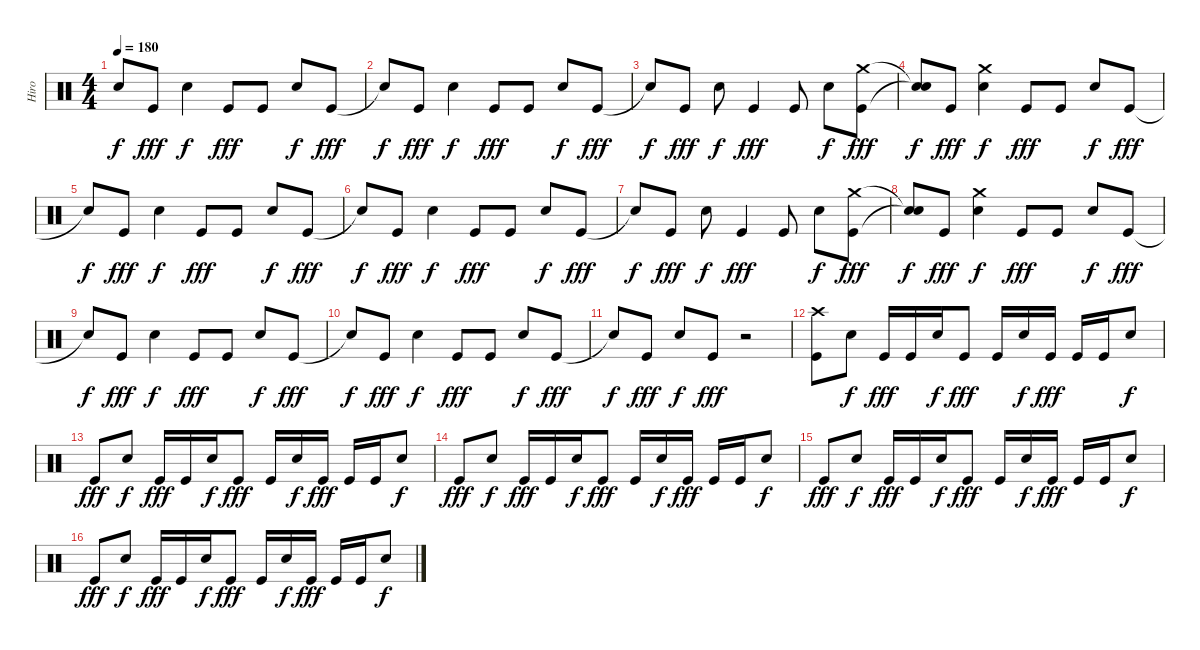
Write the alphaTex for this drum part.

\track ("Hiro" "Hiro") {instrument percussion}
\staff {score}
\articulation defaults
\ts (4 4)
\tempo 180
\clef neutral
\ks c "Snare (hit)"{t}.8{dy f} "Kick (hit)".8{dy fff} "Electric Snare (hit)".4{dy f} "Kick (hit)".8{dy fff} "Kick (hit)".8 "Electric Snare (hit)".8{dy f} "Kick (hit)".8{dy fff}
|
"Snare (hit)"{t}.8{dy f} "Kick (hit)".8{dy fff} "Electric Snare (hit)".4{dy f} "Kick (hit)".8{dy fff} "Kick (hit)".8 "Electric Snare (hit)".8{dy f} "Kick (hit)".8{dy fff} |
"Snare (hit)"{t}.8{dy f} "Kick (hit)".8{dy fff} "Electric Snare (hit)".8{dy f} "Kick (hit)".4{dy fff} "Kick (hit)".8 "Electric Snare (hit)".8{dy f} ("Crash medium (hit)" "Kick (hit)").8{dy fff} |
("Snare (hit)"{t} "Snare (hit)"{t}).8{dy f} "Kick (hit)".8{dy fff} ("Crash medium (hit)" "Electric Snare (hit)").4{dy f} "Kick (hit)".8{dy fff} "Kick (hit)".8 "Electric Snare (hit)".8{dy f} "Kick (hit)".8{dy fff} |
"Snare (hit)"{t}.8{dy f} "Kick (hit)".8{dy fff} "Electric Snare (hit)".4{dy f} "Kick (hit)".8{dy fff} "Kick (hit)".8 "Electric Snare (hit)".8{dy f} "Kick (hit)".8{dy fff} |
"Snare (hit)"{t}.8{dy f} "Kick (hit)".8{dy fff} "Electric Snare (hit)".4{dy f} "Kick (hit)".8{dy fff} "Kick (hit)".8 "Electric Snare (hit)".8{dy f} "Kick (hit)".8{dy fff} |
"Snare (hit)"{t}.8{dy f} "Kick (hit)".8{dy fff} "Electric Snare (hit)".8{dy f} "Kick (hit)".4{dy fff} "Kick (hit)".8 "Electric Snare (hit)".8{dy f} ("Crash medium (hit)" "Kick (hit)").8{dy fff} |
("Snare (hit)"{t} "Snare (hit)"{t}).8{dy f} "Kick (hit)".8{dy fff} ("Crash medium (hit)" "Electric Snare (hit)").4{dy f} "Kick (hit)".8{dy fff} "Kick (hit)".8 "Electric Snare (hit)".8{dy f} "Kick (hit)".8{dy fff} |
"Snare (hit)"{t}.8{dy f} "Kick (hit)".8{dy fff} "Electric Snare (hit)".4{dy f} "Kick (hit)".8{dy fff} "Kick (hit)".8 "Electric Snare (hit)".8{dy f} "Kick (hit)".8{dy fff} |
"Snare (hit)"{t}.8{dy f} "Kick (hit)".8{dy fff} "Electric Snare (hit)".4{dy f} "Kick (hit)".8{dy fff} "Kick (hit)".8 "Electric Snare (hit)".8{dy f} "Kick (hit)".8{dy fff} |
"Snare (hit)"{t}.8{dy f} "Kick (hit)".8{dy fff} "Electric Snare (hit)".8{dy f} "Kick (hit)".8{dy fff} r.2 |
("Crash high (hit)" "Kick (hit)").8 "Electric Snare (hit)".8{dy f} "Kick (hit)".16{dy fff} "Kick (hit)".16 "Electric Snare (hit)".16{dy f} "Kick (hit)".8{dy fff} "Kick (hit)".16 "Electric Snare (hit)".16{dy f} "Kick (hit)".16{dy fff} "Kick (hit)".16 "Kick (hit)".16 "Electric Snare (hit)".8{dy f} |
"Kick (hit)".8{dy fff} "Electric Snare (hit)".8{dy f} "Kick (hit)".16{dy fff} "Kick (hit)".16 "Electric Snare (hit)".16{dy f} "Kick (hit)".8{dy fff} "Kick (hit)".16 "Electric Snare (hit)".16{dy f} "Kick (hit)".16{dy fff} "Kick (hit)".16 "Kick (hit)".16 "Electric Snare (hit)".8{dy f} |
"Kick (hit)".8{dy fff} "Electric Snare (hit)".8{dy f} "Kick (hit)".16{dy fff} "Kick (hit)".16 "Electric Snare (hit)".16{dy f} "Kick (hit)".8{dy fff} "Kick (hit)".16 "Electric Snare (hit)".16{dy f} "Kick (hit)".16{dy fff} "Kick (hit)".16 "Kick (hit)".16 "Electric Snare (hit)".8{dy f} |
"Kick (hit)".8{dy fff} "Electric Snare (hit)".8{dy f} "Kick (hit)".16{dy fff} "Kick (hit)".16 "Electric Snare (hit)".16{dy f} "Kick (hit)".8{dy fff} "Kick (hit)".16 "Electric Snare (hit)".16{dy f} "Kick (hit)".16{dy fff} "Kick (hit)".16 "Kick (hit)".16 "Electric Snare (hit)".8{dy f} |
"Kick (hit)".8{dy fff} "Electric Snare (hit)".8{dy f} "Kick (hit)".16{dy fff} "Kick (hit)".16 "Electric Snare (hit)".16{dy f} "Kick (hit)".8{dy fff} "Kick (hit)".16 "Electric Snare (hit)".16{dy f} "Kick (hit)".16{dy fff} "Kick (hit)".16 "Kick (hit)".16 "Electric Snare (hit)".8{dy f}
